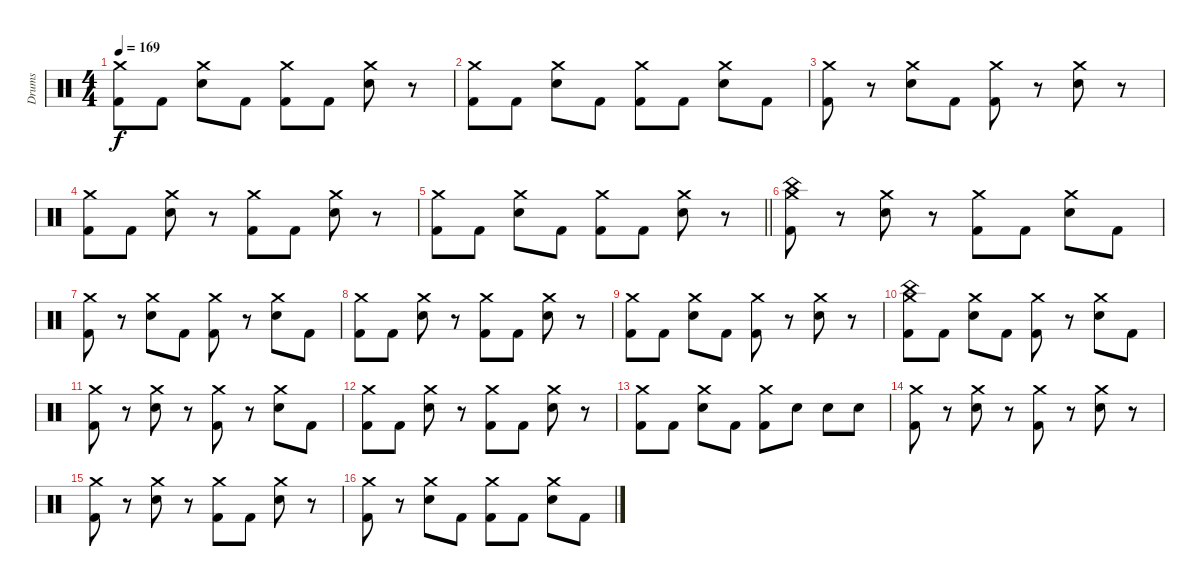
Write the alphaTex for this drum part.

\track ("Drums" "Drums") {instrument percussion}
\staff {score}
\articulation defaults
\ts (4 4)
\tempo 169
\clef neutral
\ks c
("Crash medium (hit)" "Kick (hit) 2").8{dy f} "Kick (hit) 2".8 ("Crash medium (hit)" "Electric Snare (hit)").8 "Kick (hit) 2".8 ("Crash medium (hit)" "Kick (hit) 2").8 "Kick (hit) 2".8 ("Crash medium (hit)" "Electric Snare (hit)").8 r.8 |
("Crash medium (hit)" "Kick (hit) 2").8 "Kick (hit) 2".8 ("Crash medium (hit)" "Electric Snare (hit)").8 "Kick (hit) 2".8 ("Crash medium (hit)" "Kick (hit) 2").8 "Kick (hit) 2".8 ("Crash medium (hit)" "Electric Snare (hit)").8 "Kick (hit) 2".8 |
("Crash medium (hit)" "Kick (hit) 2").8 r.8 ("Crash medium (hit)" "Electric Snare (hit)").8 "Kick (hit) 2".8 ("Crash medium (hit)" "Kick (hit) 2").8 r.8 ("Crash medium (hit)" "Electric Snare (hit)").8 r.8 |
("Crash medium (hit)" "Kick (hit) 2").8 "Kick (hit) 2".8 ("Crash medium (hit)" "Electric Snare (hit)").8 r.8 ("Crash medium (hit)" "Kick (hit) 2").8 "Kick (hit) 2".8 ("Crash medium (hit)" "Electric Snare (hit)").8 r.8 |
\barLineRight lightlight
("Crash medium (hit)" "Kick (hit) 2").8 "Kick (hit) 2".8 ("Crash medium (hit)" "Electric Snare (hit)").8 "Kick (hit) 2".8 ("Crash medium (hit)" "Kick (hit) 2").8 "Kick (hit) 2".8 ("Crash medium (hit)" "Electric Snare (hit)").8 r.8 |
\section ("" "")
("Crash medium (hit)" "China (hit)" "Kick (hit) 2").8 r.8 ("Crash medium (hit)" "Electric Snare (hit)").8 r.8 ("Crash medium (hit)" "Kick (hit) 2").8 "Kick (hit) 2".8 ("Crash medium (hit)" "Electric Snare (hit)").8 "Kick (hit) 2".8 |
("Crash medium (hit)" "Kick (hit) 2").8 r.8 ("Crash medium (hit)" "Electric Snare (hit)").8 "Kick (hit) 2".8 ("Crash medium (hit)" "Kick (hit) 2").8 r.8 ("Crash medium (hit)" "Electric Snare (hit)").8 "Kick (hit) 2".8 |
("Crash medium (hit)" "Kick (hit) 2").8 "Kick (hit) 2".8 ("Crash medium (hit)" "Electric Snare (hit)").8 r.8 ("Crash medium (hit)" "Kick (hit) 2").8 "Kick (hit) 2".8 ("Crash medium (hit)" "Electric Snare (hit)").8 r.8 |
("Crash medium (hit)" "Kick (hit) 2").8 "Kick (hit) 2".8 ("Crash medium (hit)" "Electric Snare (hit)").8 "Kick (hit) 2".8 ("Crash medium (hit)" "Kick (hit) 2").8 r.8 ("Crash medium (hit)" "Electric Snare (hit)").8 r.8 |
("Crash medium (hit)" "China (hit)" "Kick (hit) 2").8 "Kick (hit) 2".8 ("Crash medium (hit)" "Electric Snare (hit)").8 "Kick (hit) 2".8 ("Crash medium (hit)" "Kick (hit) 2").8 r.8 ("Crash medium (hit)" "Electric Snare (hit)").8 "Kick (hit) 2".8 |
("Crash medium (hit)" "Kick (hit) 2").8 r.8 ("Crash medium (hit)" "Electric Snare (hit)").8 r.8 ("Crash medium (hit)" "Kick (hit) 2").8 r.8 ("Crash medium (hit)" "Electric Snare (hit)").8 "Kick (hit) 2".8 |
("Crash medium (hit)" "Kick (hit) 2").8 "Kick (hit) 2".8 ("Crash medium (hit)" "Electric Snare (hit)").8 r.8 ("Crash medium (hit)" "Kick (hit) 2").8 "Kick (hit) 2".8 ("Crash medium (hit)" "Electric Snare (hit)").8 r.8 |
("Crash medium (hit)" "Kick (hit) 2").8 "Kick (hit) 2".8 ("Crash medium (hit)" "Electric Snare (hit)").8 "Kick (hit) 2".8 ("Crash medium (hit)" "Kick (hit) 2").8 "Electric Snare (hit)".8 "Electric Snare (hit)".8 "Electric Snare (hit)".8 |
("Crash medium (hit)" "Kick (hit) 2").8 r.8 ("Crash medium (hit)" "Electric Snare (hit)").8 r.8 ("Crash medium (hit)" "Kick (hit) 2").8 r.8 ("Crash medium (hit)" "Electric Snare (hit)").8 r.8 |
("Crash medium (hit)" "Kick (hit) 2").8 r.8 ("Crash medium (hit)" "Electric Snare (hit)").8 r.8 ("Crash medium (hit)" "Kick (hit) 2").8 "Kick (hit) 2".8 ("Crash medium (hit)" "Electric Snare (hit)").8 r.8 |
("Crash medium (hit)" "Kick (hit) 2").8 r.8 ("Crash medium (hit)" "Electric Snare (hit)").8 "Kick (hit) 2".8 ("Crash medium (hit)" "Kick (hit) 2").8 "Kick (hit) 2".8 ("Crash medium (hit)" "Electric Snare (hit)").8 "Kick (hit) 2".8
